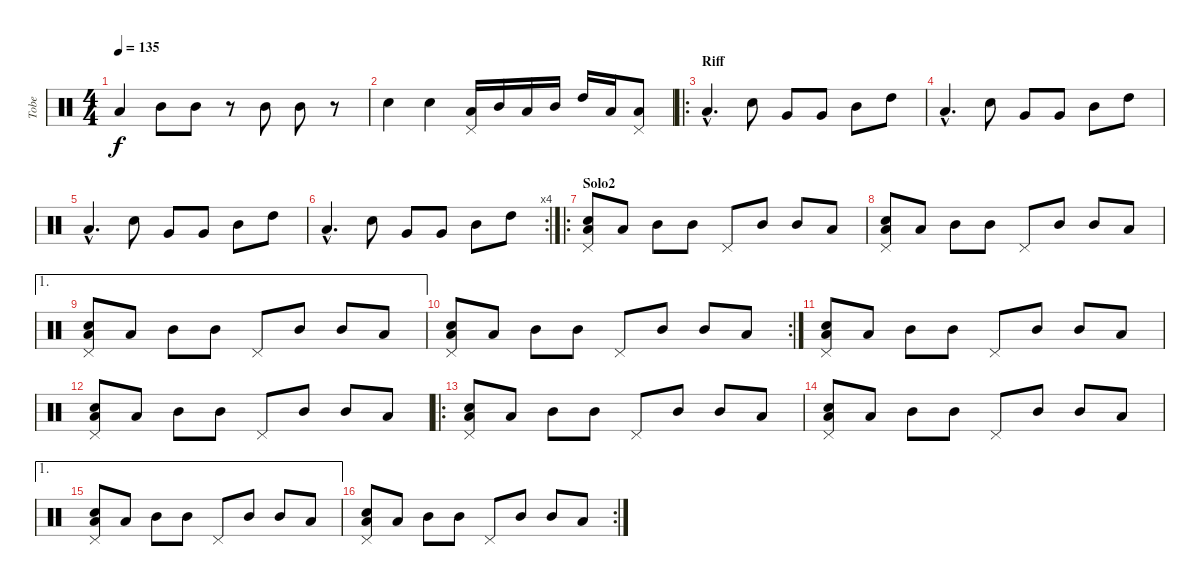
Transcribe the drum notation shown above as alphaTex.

\track ("Tobe" "Tobe") {instrument percussion}
\staff {score}
\articulation defaults
\ts (4 4)
\tempo 135
\clef neutral
\ks c "Low Tom (hit)".4{dy f} "Mid Tom (hit)".8 "Mid Tom (hit)".8
r.8 "Mid Tom (hit)".8 "Mid Tom (hit)".8 r.8 |
"Snare (hit) 2".4 "Snare (hit) 2".4 ("Low Tom (hit)" "Pedal Hi-Hat (hit)").16 "Mid Tom (hit)".16 "Low Tom (hit)".16 "Mid Tom (hit)".16 "High Tom (hit)".16 "Low Floor Tom (hit)".16 ("Low Tom (hit)" "Pedal Hi-Hat (hit)").8 |
\ro
\section ("" "Riff")
"Low Tom (hit)"{hac}.4{d} "Snare (hit) 2".8 "Very Low Tom (hit)".8 "Very Low Tom (hit)".8 "Mid Tom (hit)".8 "High Tom (hit)".8 |
"Low Tom (hit)"{hac}.4{d} "Snare (hit) 2".8 "Very Low Tom (hit)".8 "Very Low Tom (hit)".8 "Mid Tom (hit)".8 "High Tom (hit)".8 |
"Low Tom (hit)"{hac}.4{d} "Snare (hit) 2".8 "Very Low Tom (hit)".8 "Very Low Tom (hit)".8 "Mid Tom (hit)".8 "High Tom (hit)".8 |
\rc 4 "Low Tom (hit)"{hac}.4{d} "Snare (hit) 2".8 "Very Low Tom (hit)".8 "Very Low Tom (hit)".8 "Mid Tom (hit)".8 "High Tom (hit)".8
|
\ro
\section ("" "Solo2")
("Low Tom (hit)" "Snare (hit) 2" "Pedal Hi-Hat (hit)").8 "Low Tom (hit)".8 "Mid Tom (hit)".8 "Mid Tom (hit)".8 "Pedal Hi-Hat (hit)".8 "Mid Tom (hit)".8 "Mid Tom (hit)".8 "Low Tom (hit)".8 |
("Low Tom (hit)" "Snare (hit) 2" "Pedal Hi-Hat (hit)").8 "Low Tom (hit)".8 "Mid Tom (hit)".8 "Mid Tom (hit)".8 "Pedal Hi-Hat (hit)".8 "Mid Tom (hit)".8 "Mid Tom (hit)".8 "Low Tom (hit)".8 |
\ae 1
("Low Tom (hit)" "Snare (hit) 2" "Pedal Hi-Hat (hit)").8 "Low Tom (hit)".8 "Mid Tom (hit)".8 "Mid Tom (hit)".8 "Pedal Hi-Hat (hit)".8 "Mid Tom (hit)".8 "Mid Tom (hit)".8 "Low Tom (hit)".8 |
\rc 2
("Low Tom (hit)" "Snare (hit) 2" "Pedal Hi-Hat (hit)").8 "Low Tom (hit)".8 "Mid Tom (hit)".8 "Mid Tom (hit)".8 "Pedal Hi-Hat (hit)".8 "Mid Tom (hit)".8 "Mid Tom (hit)".8 "Low Tom (hit)".8 |
("Low Tom (hit)" "Snare (hit) 2" "Pedal Hi-Hat (hit)").8 "Low Tom (hit)".8 "Mid Tom (hit)".8 "Mid Tom (hit)".8 "Pedal Hi-Hat (hit)".8 "Mid Tom (hit)".8 "Mid Tom (hit)".8 "Low Tom (hit)".8 |
("Low Tom (hit)" "Snare (hit) 2" "Pedal Hi-Hat (hit)").8 "Low Tom (hit)".8 "Mid Tom (hit)".8 "Mid Tom (hit)".8 "Pedal Hi-Hat (hit)".8 "Mid Tom (hit)".8 "Mid Tom (hit)".8 "Low Tom (hit)".8 |
\ro
("Low Tom (hit)" "Snare (hit) 2" "Pedal Hi-Hat (hit)").8 "Low Tom (hit)".8 "Mid Tom (hit)".8 "Mid Tom (hit)".8 "Pedal Hi-Hat (hit)".8 "Mid Tom (hit)".8 "Mid Tom (hit)".8 "Low Tom (hit)".8 |
("Low Tom (hit)" "Snare (hit) 2" "Pedal Hi-Hat (hit)").8 "Low Tom (hit)".8 "Mid Tom (hit)".8 "Mid Tom (hit)".8 "Pedal Hi-Hat (hit)".8 "Mid Tom (hit)".8 "Mid Tom (hit)".8 "Low Tom (hit)".8 |
\ae 1
("Low Tom (hit)" "Snare (hit) 2" "Pedal Hi-Hat (hit)").8 "Low Tom (hit)".8 "Mid Tom (hit)".8 "Mid Tom (hit)".8 "Pedal Hi-Hat (hit)".8 "Mid Tom (hit)".8 "Mid Tom (hit)".8 "Low Tom (hit)".8 |
\rc 2
("Low Tom (hit)" "Snare (hit) 2" "Pedal Hi-Hat (hit)").8 "Low Tom (hit)".8 "Mid Tom (hit)".8 "Mid Tom (hit)".8 "Pedal Hi-Hat (hit)".8 "Mid Tom (hit)".8 "Mid Tom (hit)".8 "Low Tom (hit)".8
